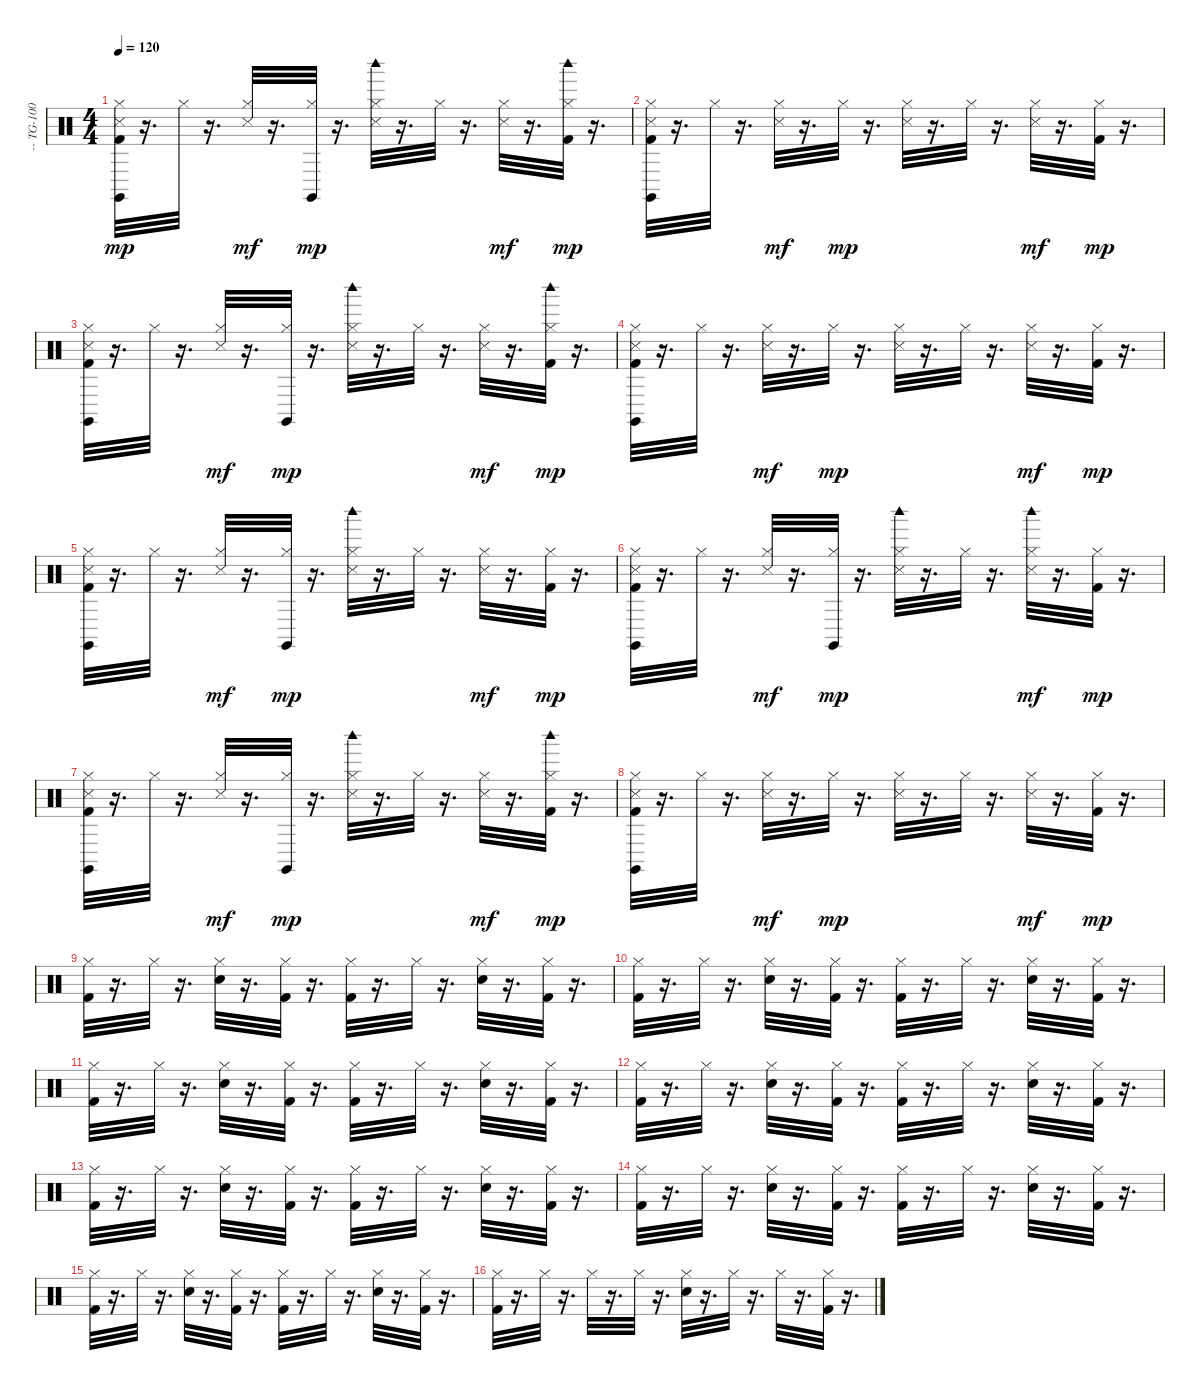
\track ("-- TG-100 GS Drum --" "-- TG-100 ") {instrument percussion}
\staff {score}
\articulation defaults
\ts (4 4)
\tempo 120
\clef neutral
\ks c
("Hi-Hat (closed)" "Claves (hit)" "Snare (side stick) 3" "Kick (hit) 2").32{dy mp} r.16{d} "Hi-Hat (closed)".32 r.16{d} ("Snare (side stick) 3" "Hi-Hat (closed)").32{dy mf} r.16{d} ("Hi-Hat (closed)" "Claves (hit)").32{dy mp} r.16{d} ("Hi-Hat (closed)" "Woodblock high (hit)" "Snare (side stick) 3").32 r.16{d} "Hi-Hat (closed)".32 r.16{d} ("Snare (side stick) 3" "Hi-Hat (closed)").32{dy mf} r.16{d} ("Hi-Hat (closed)" "Woodblock high (hit)" "Kick (hit) 2").32{dy mp} r.16{d} |
("Hi-Hat (closed)" "Claves (hit)" "Snare (side stick) 3" "Kick (hit) 2").32 r.16{d} "Hi-Hat (closed)".32 r.16{d} ("Snare (side stick) 3" "Hi-Hat (closed)").32{dy mf} r.16{d} "Hi-Hat (closed)".32{dy mp} r.16{d} ("Hi-Hat (closed)" "Snare (side stick) 3").32 r.16{d} "Hi-Hat (closed)".32 r.16{d} ("Snare (side stick) 3" "Hi-Hat (closed)").32{dy mf} r.16{d} ("Hi-Hat (closed)" "Kick (hit) 2").32{dy mp} r.16{d} |
("Hi-Hat (closed)" "Claves (hit)" "Snare (side stick) 3" "Kick (hit) 2").32 r.16{d} "Hi-Hat (closed)".32 r.16{d} ("Snare (side stick) 3" "Hi-Hat (closed)").32{dy mf} r.16{d} ("Hi-Hat (closed)" "Claves (hit)").32{dy mp} r.16{d} ("Hi-Hat (closed)" "Woodblock high (hit)" "Snare (side stick) 3").32 r.16{d} "Hi-Hat (closed)".32 r.16{d} ("Snare (side stick) 3" "Hi-Hat (closed)").32{dy mf} r.16{d} ("Hi-Hat (closed)" "Woodblock high (hit)" "Kick (hit) 2").32{dy mp} r.16{d} |
("Hi-Hat (closed)" "Claves (hit)" "Snare (side stick) 3" "Kick (hit) 2").32 r.16{d} "Hi-Hat (closed)".32 r.16{d} ("Snare (side stick) 3" "Hi-Hat (closed)").32{dy mf} r.16{d} "Hi-Hat (closed)".32{dy mp} r.16{d} ("Hi-Hat (closed)" "Snare (side stick) 3").32 r.16{d} "Hi-Hat (closed)".32 r.16{d} ("Snare (side stick) 3" "Hi-Hat (closed)").32{dy mf} r.16{d} ("Hi-Hat (closed)" "Kick (hit) 2").32{dy mp} r.16{d} |
("Hi-Hat (closed)" "Claves (hit)" "Snare (side stick) 3" "Kick (hit) 2").32 r.16{d} "Hi-Hat (closed)".32 r.16{d} ("Snare (side stick) 3" "Hi-Hat (closed)").32{dy mf} r.16{d} ("Hi-Hat (closed)" "Claves (hit)").32{dy mp} r.16{d} ("Hi-Hat (closed)" "Woodblock high (hit)" "Snare (side stick) 3").32 r.16{d} "Hi-Hat (closed)".32 r.16{d} ("Snare (side stick) 3" "Hi-Hat (closed)").32{dy mf} r.16{d} ("Hi-Hat (closed)" "Kick (hit) 2").32{dy mp} r.16{d} |
("Hi-Hat (closed)" "Claves (hit)" "Snare (side stick) 3" "Kick (hit) 2").32 r.16{d} "Hi-Hat (closed)".32 r.16{d} ("Snare (side stick) 3" "Hi-Hat (closed)").32{dy mf} r.16{d} ("Hi-Hat (closed)" "Claves (hit)").32{dy mp} r.16{d} ("Hi-Hat (closed)" "Woodblock high (hit)" "Snare (side stick) 3").32 r.16{d} "Hi-Hat (closed)".32 r.16{d} ("Woodblock high (hit)" "Snare (side stick) 3" "Hi-Hat (closed)").32{dy mf} r.16{d} ("Hi-Hat (closed)" "Kick (hit) 2").32{dy mp} r.16{d} |
("Hi-Hat (closed)" "Claves (hit)" "Snare (side stick) 3" "Kick (hit) 2").32 r.16{d} "Hi-Hat (closed)".32 r.16{d} ("Snare (side stick) 3" "Hi-Hat (closed)").32{dy mf} r.16{d} ("Hi-Hat (closed)" "Claves (hit)").32{dy mp} r.16{d} ("Hi-Hat (closed)" "Woodblock high (hit)" "Snare (side stick) 3").32 r.16{d} "Hi-Hat (closed)".32 r.16{d} ("Snare (side stick) 3" "Hi-Hat (closed)").32{dy mf} r.16{d} ("Hi-Hat (closed)" "Woodblock high (hit)" "Kick (hit) 2").32{dy mp} r.16{d} |
("Hi-Hat (closed)" "Claves (hit)" "Snare (side stick) 3" "Kick (hit) 2").32 r.16{d} "Hi-Hat (closed)".32 r.16{d} ("Snare (side stick) 3" "Hi-Hat (closed)").32{dy mf} r.16{d} "Hi-Hat (closed)".32{dy mp} r.16{d} ("Hi-Hat (closed)" "Snare (side stick) 3").32 r.16{d} "Hi-Hat (closed)".32 r.16{d} ("Snare (side stick) 3" "Hi-Hat (closed)").32{dy mf} r.16{d} ("Hi-Hat (closed)" "Kick (hit) 2").32{dy mp} r.16{d} |
("Hi-Hat (closed)" "Kick (hit) 2").32 r.16{d} "Hi-Hat (closed)".32 r.16{d} ("Hi-Hat (closed)" "Snare (hit) 2").32 r.16{d} ("Hi-Hat (closed)" "Kick (hit) 2").32 r.16{d} ("Hi-Hat (closed)" "Kick (hit) 2").32 r.16{d} "Hi-Hat (closed)".32 r.16{d} ("Hi-Hat (closed)" "Snare (hit) 2").32 r.16{d} ("Hi-Hat (closed)" "Kick (hit) 2").32 r.16{d} |
("Hi-Hat (closed)" "Kick (hit) 2").32 r.16{d} "Hi-Hat (closed)".32 r.16{d} ("Hi-Hat (closed)" "Snare (hit) 2").32 r.16{d} ("Hi-Hat (closed)" "Kick (hit) 2").32 r.16{d} ("Hi-Hat (closed)" "Kick (hit) 2").32 r.16{d} "Hi-Hat (closed)".32 r.16{d} ("Hi-Hat (closed)" "Snare (hit) 2").32 r.16{d} ("Hi-Hat (closed)" "Kick (hit) 2").32 r.16{d} |
("Hi-Hat (closed)" "Kick (hit) 2").32 r.16{d} "Hi-Hat (closed)".32 r.16{d} ("Hi-Hat (closed)" "Snare (hit) 2").32 r.16{d} ("Hi-Hat (closed)" "Kick (hit) 2").32 r.16{d} ("Hi-Hat (closed)" "Kick (hit) 2").32 r.16{d} "Hi-Hat (closed)".32 r.16{d} ("Hi-Hat (closed)" "Snare (hit) 2").32 r.16{d} ("Hi-Hat (closed)" "Kick (hit) 2").32 r.16{d} |
("Hi-Hat (closed)" "Kick (hit) 2").32 r.16{d} "Hi-Hat (closed)".32 r.16{d} ("Hi-Hat (closed)" "Snare (hit) 2").32 r.16{d} ("Hi-Hat (closed)" "Kick (hit) 2").32 r.16{d} ("Hi-Hat (closed)" "Kick (hit) 2").32 r.16{d} "Hi-Hat (closed)".32 r.16{d} ("Hi-Hat (closed)" "Snare (hit) 2").32 r.16{d} ("Hi-Hat (closed)" "Kick (hit) 2").32 r.16{d} |
("Hi-Hat (closed)" "Kick (hit) 2").32 r.16{d} "Hi-Hat (closed)".32 r.16{d} ("Hi-Hat (closed)" "Snare (hit) 2").32 r.16{d} ("Hi-Hat (closed)" "Kick (hit) 2").32 r.16{d} ("Hi-Hat (closed)" "Kick (hit) 2").32 r.16{d} "Hi-Hat (closed)".32 r.16{d} ("Hi-Hat (closed)" "Snare (hit) 2").32 r.16{d} ("Hi-Hat (closed)" "Kick (hit) 2").32 r.16{d} |
("Hi-Hat (closed)" "Kick (hit) 2").32 r.16{d} "Hi-Hat (closed)".32 r.16{d} ("Hi-Hat (closed)" "Snare (hit) 2").32 r.16{d} ("Hi-Hat (closed)" "Kick (hit) 2").32 r.16{d} ("Hi-Hat (closed)" "Kick (hit) 2").32 r.16{d} "Hi-Hat (closed)".32 r.16{d} ("Hi-Hat (closed)" "Snare (hit) 2").32 r.16{d} ("Hi-Hat (closed)" "Kick (hit) 2").32 r.16{d} |
("Hi-Hat (closed)" "Kick (hit) 2").32 r.16{d} "Hi-Hat (closed)".32 r.16{d} ("Hi-Hat (closed)" "Snare (hit) 2").32 r.16{d} ("Hi-Hat (closed)" "Kick (hit) 2").32 r.16{d} ("Hi-Hat (closed)" "Kick (hit) 2").32 r.16{d} "Hi-Hat (closed)".32 r.16{d} ("Hi-Hat (closed)" "Snare (hit) 2").32 r.16{d} ("Hi-Hat (closed)" "Kick (hit) 2").32 r.16{d} |
("Hi-Hat (closed)" "Kick (hit) 2").32 r.16{d} "Hi-Hat (closed)".32 r.16{d} "Hi-Hat (closed)".32 r.16{d} "Hi-Hat (closed)".32 r.16{d} ("Hi-Hat (closed)" "Snare (hit) 2").32 r.16{d} "Hi-Hat (closed)".32 r.16{d} "Hi-Hat (closed)".32 r.16{d} ("Hi-Hat (closed)" "Kick (hit) 2").32 r.16{d}
